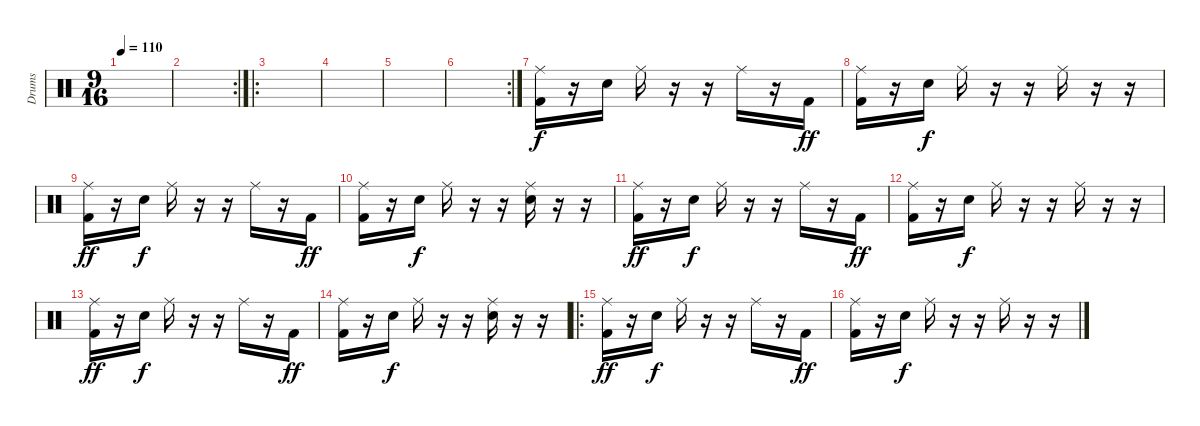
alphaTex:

\track ("Drums" "Drums") {instrument percussion}
\staff {score}
\articulation defaults
\ts (9 16)
\tempo 110
\clef neutral
\ks c
|
\rc 2
|
\ro
|
|
|
\rc 2
|
("Ride (middle)" "Kick (hit) 2").16 r.16 "Snare (hit) 2".16{dy f} "Ride (middle)".16 r.16 r.16 "Ride (middle)".16 r.16 "Kick (hit) 2".16{dy ff} |
("Ride (middle)" "Kick (hit) 2").16 r.16 "Snare (hit) 2".16{dy f} "Ride (middle)".16 r.16 r.16 "Ride (middle)".16 r.16 r.16 |
("Ride (middle)" "Kick (hit) 2").16{dy ff} r.16 "Snare (hit) 2".16{dy f} "Ride (middle)".16 r.16 r.16 "Ride (middle)".16 r.16 "Kick (hit) 2".16{dy ff} |
("Ride (middle)" "Kick (hit) 2").16 r.16 "Snare (hit) 2".16{dy f} "Ride (middle)".16 r.16 r.16 ("Ride (middle)" "Snare (hit) 2").16 r.16 r.16 |
("Ride (middle)" "Kick (hit) 2").16{dy ff} r.16 "Snare (hit) 2".16{dy f} "Ride (middle)".16 r.16 r.16 "Ride (middle)".16 r.16 "Kick (hit) 2".16{dy ff} |
("Ride (middle)" "Kick (hit) 2").16 r.16 "Snare (hit) 2".16{dy f} "Ride (middle)".16 r.16 r.16 "Ride (middle)".16 r.16 r.16 |
("Ride (middle)" "Kick (hit) 2").16{dy ff} r.16 "Snare (hit) 2".16{dy f} "Ride (middle)".16 r.16 r.16 "Ride (middle)".16 r.16 "Kick (hit) 2".16{dy ff} |
("Ride (middle)" "Kick (hit) 2").16 r.16 "Snare (hit) 2".16{dy f} "Ride (middle)".16 r.16 r.16 ("Ride (middle)" "Snare (hit) 2").16 r.16 r.16 |
\ro
("Ride (middle)" "Kick (hit) 2").16{dy ff} r.16 "Snare (hit) 2".16{dy f} "Ride (middle)".16 r.16 r.16 "Ride (middle)".16 r.16 "Kick (hit) 2".16{dy ff} |
("Ride (middle)" "Kick (hit) 2").16 r.16 "Snare (hit) 2".16{dy f} "Ride (middle)".16 r.16 r.16 "Ride (middle)".16 r.16 r.16
